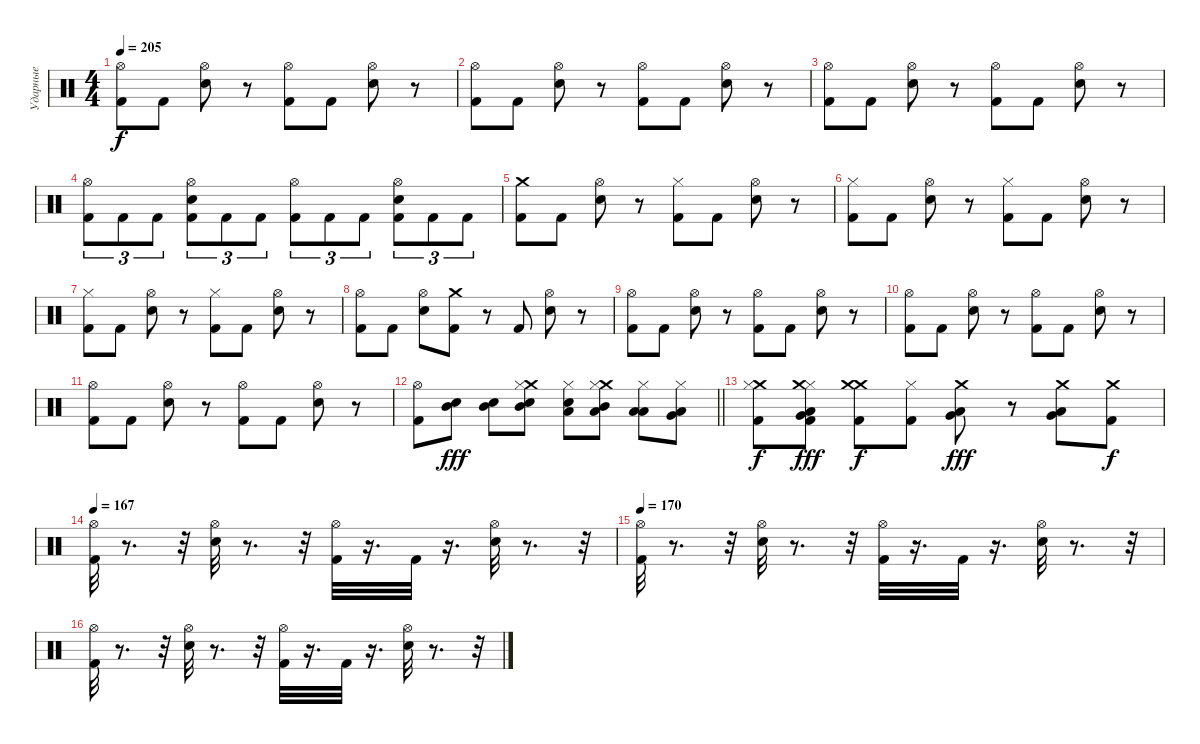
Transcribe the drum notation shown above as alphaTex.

\track ("Ударные" "Ударные") {instrument percussion}
\staff {score}
\articulation defaults
\ts (4 4)
\tempo 205
\clef neutral
\ks c
("Hi-Hat (open)" "Kick (hit) 2").8{dy f} "Kick (hit) 2".8 ("Hi-Hat (open)" "Electric Snare (hit)").8 r.8 ("Hi-Hat (open)" "Kick (hit) 2").8 "Kick (hit) 2".8 ("Hi-Hat (open)" "Electric Snare (hit)").8 r.8 |
("Hi-Hat (open)" "Kick (hit) 2").8 "Kick (hit) 2".8 ("Hi-Hat (open)" "Electric Snare (hit)").8 r.8 ("Hi-Hat (open)" "Kick (hit) 2").8 "Kick (hit) 2".8 ("Hi-Hat (open)" "Electric Snare (hit)").8 r.8 |
("Hi-Hat (open)" "Kick (hit) 2").8 "Kick (hit) 2".8 ("Hi-Hat (open)" "Electric Snare (hit)").8 r.8 ("Hi-Hat (open)" "Kick (hit) 2").8 "Kick (hit) 2".8 ("Hi-Hat (open)" "Electric Snare (hit)").8 r.8 |
("Hi-Hat (open)" "Kick (hit) 2").8{tu (3 2)} "Kick (hit) 2".8{tu (3 2)} "Kick (hit) 2".8{tu (3 2)} ("Hi-Hat (open)" "Kick (hit) 2" "Electric Snare (hit)").8{tu (3 2)} "Kick (hit) 2".8{tu (3 2)} "Kick (hit) 2".8{tu (3 2)} ("Hi-Hat (open)" "Kick (hit) 2").8{tu (3 2)} "Kick (hit) 2".8{tu (3 2)} "Kick (hit) 2".8{tu (3 2)} ("Hi-Hat (open)" "Kick (hit) 2" "Electric Snare (hit)").8{tu (3 2)} "Kick (hit) 2".8{tu (3 2)} "Kick (hit) 2".8{tu (3 2)} |
("Crash medium (hit)" "Kick (hit) 2").8 "Kick (hit) 2".8 ("Hi-Hat (open)" "Electric Snare (hit)").8 r.8 ("Hi-Hat (closed)" "Kick (hit) 2").8 "Kick (hit) 2".8 ("Hi-Hat (open)" "Electric Snare (hit)").8 r.8 |
("Hi-Hat (closed)" "Kick (hit) 2").8 "Kick (hit) 2".8 ("Hi-Hat (open)" "Electric Snare (hit)").8 r.8 ("Hi-Hat (closed)" "Kick (hit) 2").8 "Kick (hit) 2".8 ("Hi-Hat (open)" "Electric Snare (hit)").8 r.8 |
("Hi-Hat (closed)" "Kick (hit) 2").8 "Kick (hit) 2".8 ("Hi-Hat (open)" "Electric Snare (hit)").8 r.8 ("Hi-Hat (closed)" "Kick (hit) 2").8 "Kick (hit) 2".8 ("Hi-Hat (open)" "Electric Snare (hit)").8 r.8 |
("Hi-Hat (open)" "Kick (hit) 2").8 "Kick (hit) 2".8 ("Hi-Hat (open)" "Electric Snare (hit)").8 ("Crash medium (hit)" "Kick (hit) 2").8 r.8 "Kick (hit) 2".8 ("Hi-Hat (open)" "Electric Snare (hit)").8 r.8 |
("Hi-Hat (open)" "Kick (hit) 2").8 "Kick (hit) 2".8 ("Hi-Hat (open)" "Electric Snare (hit)").8 r.8 ("Hi-Hat (open)" "Kick (hit) 2").8 "Kick (hit) 2".8 ("Hi-Hat (open)" "Electric Snare (hit)").8 r.8 |
("Hi-Hat (open)" "Kick (hit) 2").8 "Kick (hit) 2".8 ("Hi-Hat (open)" "Electric Snare (hit)").8 r.8 ("Hi-Hat (open)" "Kick (hit) 2").8 "Kick (hit) 2".8 ("Hi-Hat (open)" "Electric Snare (hit)").8 r.8 |
("Hi-Hat (open)" "Kick (hit) 2").8 "Kick (hit) 2".8 ("Hi-Hat (open)" "Electric Snare (hit)").8 r.8 ("Hi-Hat (open)" "Kick (hit) 2").8 "Kick (hit) 2".8 ("Hi-Hat (open)" "Electric Snare (hit)").8 r.8 |
\barLineRight lightlight
("Hi-Hat (open)" "Kick (hit) 2").8 ("Mid Tom (hit)" "Electric Snare (hit)").8{dy fff} ("Mid Tom (hit)" "Electric Snare (hit)").8 ("Crash medium (hit)" "Mid Tom (hit)" "Electric Snare (hit)" "Hi-Hat (closed)").8 ("Low Tom (hit)" "Electric Snare (hit)" "Hi-Hat (closed)").8 ("Crash medium (hit)" "Low Tom (hit)" "Mid Tom (hit)" "Hi-Hat (closed)").8 ("Low Floor Tom (hit)" "Low Tom (hit)" "Hi-Hat (closed)").8 ("Low Floor Tom (hit)" "Very Low Tom (hit)" "Hi-Hat (closed)").8 |
("Kick (hit) 2" "Crash medium (hit)" "Hi-Hat (closed)").8{dy f} ("Kick (hit) 2" "Hi-Hat (closed)" "Low Floor Tom (hit)" "Very Low Tom (hit)" "Crash medium (hit)").8{dy fff} ("Crash medium (hit)" "Crash medium (hit)" "Kick (hit) 2").8{dy f} ("Hi-Hat (closed)" "Kick (hit) 2").8 ("Crash medium (hit)" "Low Floor Tom (hit)" "Very Low Tom (hit)").8{dy fff} r.8 ("Crash medium (hit)" "Low Floor Tom (hit)" "Very Low Tom (hit)").8 ("Crash medium (hit)" "Kick (hit) 2").8{dy f} |
\tempo 167
("Hi-Hat (open)" "Kick (hit) 2").32 r.8{d} r.32 ("Hi-Hat (open)" "Electric Snare (hit)").32 r.8{d} r.32 ("Hi-Hat (open)" "Kick (hit) 2").32 r.16{d} "Kick (hit) 2".32 r.16{d} ("Hi-Hat (open)" "Electric Snare (hit)").32 r.8{d} r.32 |
\tempo 170
("Hi-Hat (open)" "Kick (hit) 2").32 r.8{d} r.32 ("Hi-Hat (open)" "Electric Snare (hit)").32 r.8{d} r.32 ("Hi-Hat (open)" "Kick (hit) 2").32 r.16{d} "Kick (hit) 2".32 r.16{d} ("Hi-Hat (open)" "Electric Snare (hit)").32 r.8{d} r.32 |
("Hi-Hat (open)" "Kick (hit) 2").32 r.8{d} r.32 ("Hi-Hat (open)" "Electric Snare (hit)").32 r.8{d} r.32 ("Hi-Hat (open)" "Kick (hit) 2").32 r.16{d} "Kick (hit) 2".32 r.16{d} ("Hi-Hat (open)" "Electric Snare (hit)").32 r.8{d} r.32
